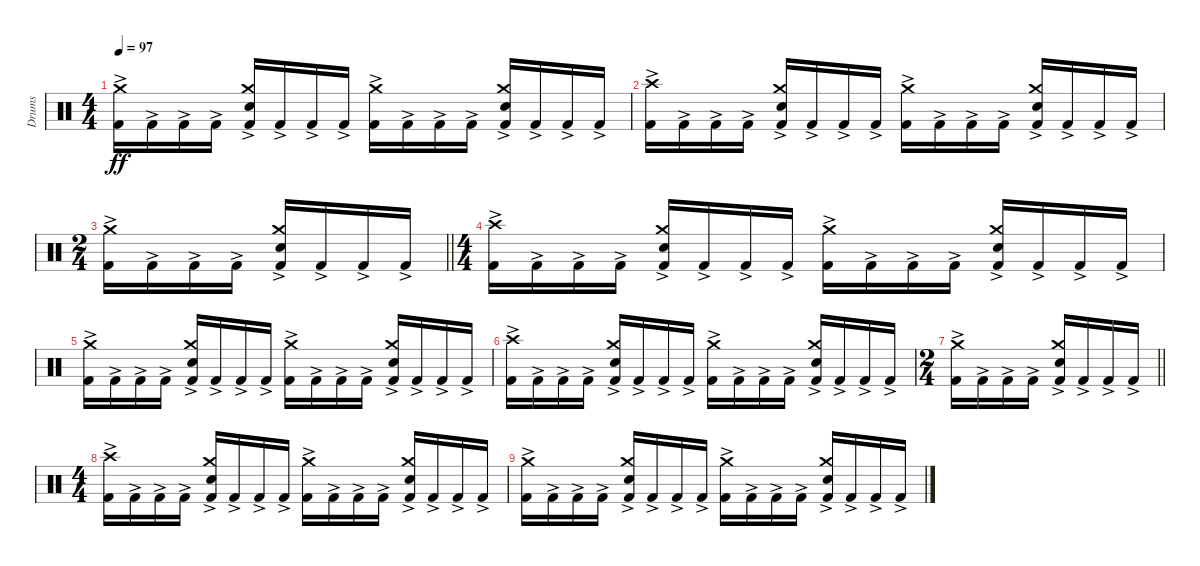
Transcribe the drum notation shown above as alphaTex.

\track ("Drums" "Drums") {instrument percussion}
\staff {score}
\articulation defaults
\ts (4 4)
\tempo 97
\clef neutral
\ks c
("Kick (hit) 2"{ac} "Crash medium (hit)").16{dy ff} "Kick (hit) 2"{ac}.16 "Kick (hit) 2"{ac}.16 "Kick (hit) 2"{ac}.16 ("Kick (hit) 2"{ac} "Snare (hit) 2" "Crash medium (hit)").16 "Kick (hit) 2"{ac}.16 "Kick (hit) 2"{ac}.16 "Kick (hit) 2"{ac}.16 ("Kick (hit) 2"{ac} "Crash medium (hit)").16 "Kick (hit) 2"{ac}.16 "Kick (hit) 2"{ac}.16 "Kick (hit) 2"{ac}.16 ("Kick (hit) 2"{ac} "Snare (hit) 2" "Crash medium (hit)").16 "Kick (hit) 2"{ac}.16 "Kick (hit) 2"{ac}.16 "Kick (hit) 2"{ac}.16 |
("Kick (hit) 2"{ac} "Crash high (hit)").16 "Kick (hit) 2"{ac}.16 "Kick (hit) 2"{ac}.16 "Kick (hit) 2"{ac}.16 ("Kick (hit) 2"{ac} "Snare (hit) 2" "Crash medium (hit)").16 "Kick (hit) 2"{ac}.16 "Kick (hit) 2"{ac}.16 "Kick (hit) 2"{ac}.16 ("Kick (hit) 2"{ac} "Crash medium (hit)").16 "Kick (hit) 2"{ac}.16 "Kick (hit) 2"{ac}.16 "Kick (hit) 2"{ac}.16 ("Kick (hit) 2"{ac} "Snare (hit) 2" "Crash medium (hit)").16 "Kick (hit) 2"{ac}.16 "Kick (hit) 2"{ac}.16 "Kick (hit) 2"{ac}.16 |
\ts (2 4)
\barLineRight lightlight
("Kick (hit) 2"{ac} "Crash medium (hit)").16 "Kick (hit) 2"{ac}.16 "Kick (hit) 2"{ac}.16 "Kick (hit) 2"{ac}.16 ("Kick (hit) 2"{ac} "Snare (hit) 2" "Crash medium (hit)").16 "Kick (hit) 2"{ac}.16 "Kick (hit) 2"{ac}.16 "Kick (hit) 2"{ac}.16 |
\ts (4 4)
\section ("" "")
("Kick (hit) 2"{ac} "Crash high (hit)").16 "Kick (hit) 2"{ac}.16 "Kick (hit) 2"{ac}.16 "Kick (hit) 2"{ac}.16 ("Kick (hit) 2"{ac} "Snare (hit) 2" "Crash medium (hit)").16 "Kick (hit) 2"{ac}.16 "Kick (hit) 2"{ac}.16 "Kick (hit) 2"{ac}.16 ("Kick (hit) 2"{ac} "Crash medium (hit)").16 "Kick (hit) 2"{ac}.16 "Kick (hit) 2"{ac}.16 "Kick (hit) 2"{ac}.16 ("Kick (hit) 2"{ac} "Snare (hit) 2" "Crash medium (hit)").16 "Kick (hit) 2"{ac}.16 "Kick (hit) 2"{ac}.16 "Kick (hit) 2"{ac}.16 |
("Kick (hit) 2"{ac} "Crash medium (hit)").16 "Kick (hit) 2"{ac}.16 "Kick (hit) 2"{ac}.16 "Kick (hit) 2"{ac}.16 ("Kick (hit) 2"{ac} "Snare (hit) 2" "Crash medium (hit)").16 "Kick (hit) 2"{ac}.16 "Kick (hit) 2"{ac}.16 "Kick (hit) 2"{ac}.16 ("Kick (hit) 2"{ac} "Crash medium (hit)").16 "Kick (hit) 2"{ac}.16 "Kick (hit) 2"{ac}.16 "Kick (hit) 2"{ac}.16 ("Kick (hit) 2"{ac} "Snare (hit) 2" "Crash medium (hit)").16 "Kick (hit) 2"{ac}.16 "Kick (hit) 2"{ac}.16 "Kick (hit) 2"{ac}.16 |
("Kick (hit) 2"{ac} "Crash high (hit)").16 "Kick (hit) 2"{ac}.16 "Kick (hit) 2"{ac}.16 "Kick (hit) 2"{ac}.16 ("Kick (hit) 2"{ac} "Snare (hit) 2" "Crash medium (hit)").16 "Kick (hit) 2"{ac}.16 "Kick (hit) 2"{ac}.16 "Kick (hit) 2"{ac}.16 ("Kick (hit) 2"{ac} "Crash medium (hit)").16 "Kick (hit) 2"{ac}.16 "Kick (hit) 2"{ac}.16 "Kick (hit) 2"{ac}.16 ("Kick (hit) 2"{ac} "Snare (hit) 2" "Crash medium (hit)").16 "Kick (hit) 2"{ac}.16 "Kick (hit) 2"{ac}.16 "Kick (hit) 2"{ac}.16 |
\ts (2 4)
\barLineRight lightlight
("Kick (hit) 2"{ac} "Crash medium (hit)").16 "Kick (hit) 2"{ac}.16 "Kick (hit) 2"{ac}.16 "Kick (hit) 2"{ac}.16 ("Kick (hit) 2"{ac} "Snare (hit) 2" "Crash medium (hit)").16 "Kick (hit) 2"{ac}.16 "Kick (hit) 2"{ac}.16 "Kick (hit) 2"{ac}.16 |
\ts (4 4)
\section ("" "")
("Kick (hit) 2"{ac} "Crash high (hit)").16 "Kick (hit) 2"{ac}.16 "Kick (hit) 2"{ac}.16 "Kick (hit) 2"{ac}.16 ("Kick (hit) 2"{ac} "Snare (hit) 2" "Crash medium (hit)").16 "Kick (hit) 2"{ac}.16 "Kick (hit) 2"{ac}.16 "Kick (hit) 2"{ac}.16 ("Kick (hit) 2"{ac} "Crash medium (hit)").16 "Kick (hit) 2"{ac}.16 "Kick (hit) 2"{ac}.16 "Kick (hit) 2"{ac}.16 ("Kick (hit) 2"{ac} "Snare (hit) 2" "Crash medium (hit)").16 "Kick (hit) 2"{ac}.16 "Kick (hit) 2"{ac}.16 "Kick (hit) 2"{ac}.16 |
("Kick (hit) 2"{ac} "Crash medium (hit)").16 "Kick (hit) 2"{ac}.16 "Kick (hit) 2"{ac}.16 "Kick (hit) 2"{ac}.16 ("Kick (hit) 2"{ac} "Snare (hit) 2" "Crash medium (hit)").16 "Kick (hit) 2"{ac}.16 "Kick (hit) 2"{ac}.16 "Kick (hit) 2"{ac}.16 ("Kick (hit) 2"{ac} "Crash medium (hit)").16 "Kick (hit) 2"{ac}.16 "Kick (hit) 2"{ac}.16 "Kick (hit) 2"{ac}.16 ("Kick (hit) 2"{ac} "Snare (hit) 2" "Crash medium (hit)").16 "Kick (hit) 2"{ac}.16 "Kick (hit) 2"{ac}.16 "Kick (hit) 2"{ac}.16
